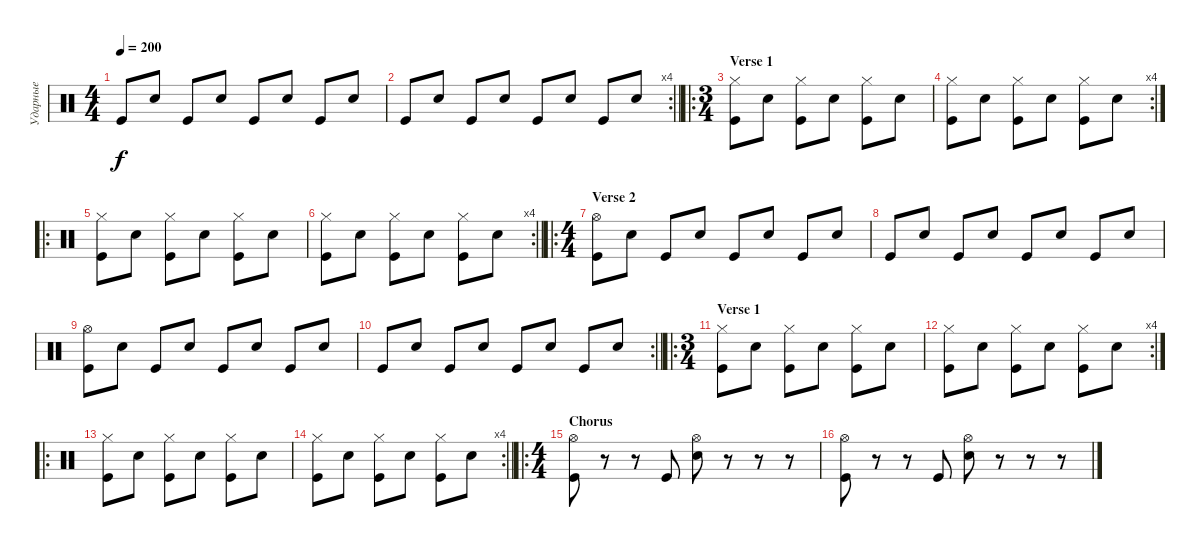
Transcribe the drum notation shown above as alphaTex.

\track ("Ударные" "Ударные") {instrument percussion}
\staff {score}
\articulation defaults
\ts (4 4)
\tempo 200
\clef neutral
\ks c "Kick (hit)".8{dy f} "Snare (hit) 2".8 "Kick (hit)".8 "Snare (hit) 2".8 "Kick (hit)".8 "Snare (hit) 2".8 "Kick (hit)".8 "Snare (hit) 2".8
|
\rc 4
\barLineRight lightlight "Kick (hit)".8 "Snare (hit) 2".8 "Kick (hit)".8 "Snare (hit) 2".8 "Kick (hit)".8 "Snare (hit) 2".8 "Kick (hit)".8 "Snare (hit) 2".8
|
\ro
\ts (3 4)
\section ("" "Verse 1")
("Hi-Hat (closed)" "Kick (hit)").8 "Snare (hit) 2".8 ("Hi-Hat (closed)" "Kick (hit)").8 "Snare (hit) 2".8 ("Hi-Hat (closed)" "Kick (hit)").8 "Snare (hit) 2".8 |
\rc 4
("Hi-Hat (closed)" "Kick (hit)").8 "Snare (hit) 2".8 ("Hi-Hat (closed)" "Kick (hit)").8 "Snare (hit) 2".8 ("Hi-Hat (closed)" "Kick (hit)").8 "Snare (hit) 2".8 |
\ro
("Hi-Hat (closed)" "Kick (hit)").8 "Snare (hit) 2".8 ("Hi-Hat (closed)" "Kick (hit)").8 "Snare (hit) 2".8 ("Hi-Hat (closed)" "Kick (hit)").8 "Snare (hit) 2".8 |
\rc 4
\barLineRight lightlight
("Hi-Hat (closed)" "Kick (hit)").8 "Snare (hit) 2".8 ("Hi-Hat (closed)" "Kick (hit)").8 "Snare (hit) 2".8 ("Hi-Hat (closed)" "Kick (hit)").8 "Snare (hit) 2".8 |
\ro
\ts (4 4)
\section ("" "Verse 2")
("Hi-Hat (open)" "Kick (hit)").8 "Snare (hit) 2".8 "Kick (hit)".8 "Snare (hit) 2".8 "Kick (hit)".8 "Snare (hit) 2".8 "Kick (hit)".8 "Snare (hit) 2".8 |
"Kick (hit)".8 "Snare (hit) 2".8 "Kick (hit)".8 "Snare (hit) 2".8 "Kick (hit)".8 "Snare (hit) 2".8 "Kick (hit)".8 "Snare (hit) 2".8 |
("Hi-Hat (open)" "Kick (hit)").8 "Snare (hit) 2".8 "Kick (hit)".8 "Snare (hit) 2".8 "Kick (hit)".8 "Snare (hit) 2".8 "Kick (hit)".8 "Snare (hit) 2".8 |
\rc 2
\barLineRight lightlight "Kick (hit)".8 "Snare (hit) 2".8 "Kick (hit)".8 "Snare (hit) 2".8 "Kick (hit)".8 "Snare (hit) 2".8 "Kick (hit)".8 "Snare (hit) 2".8
|
\ro
\ts (3 4)
\section ("" "Verse 1")
("Hi-Hat (closed)" "Kick (hit)").8 "Snare (hit) 2".8 ("Hi-Hat (closed)" "Kick (hit)").8 "Snare (hit) 2".8 ("Hi-Hat (closed)" "Kick (hit)").8 "Snare (hit) 2".8 |
\rc 4
("Hi-Hat (closed)" "Kick (hit)").8 "Snare (hit) 2".8 ("Hi-Hat (closed)" "Kick (hit)").8 "Snare (hit) 2".8 ("Hi-Hat (closed)" "Kick (hit)").8 "Snare (hit) 2".8 |
\ro
("Hi-Hat (closed)" "Kick (hit)").8 "Snare (hit) 2".8 ("Hi-Hat (closed)" "Kick (hit)").8 "Snare (hit) 2".8 ("Hi-Hat (closed)" "Kick (hit)").8 "Snare (hit) 2".8 |
\rc 4
\barLineRight lightlight
("Hi-Hat (closed)" "Kick (hit)").8 "Snare (hit) 2".8 ("Hi-Hat (closed)" "Kick (hit)").8 "Snare (hit) 2".8 ("Hi-Hat (closed)" "Kick (hit)").8 "Snare (hit) 2".8 |
\ro
\ts (4 4)
\section ("" "Chorus")
("Hi-Hat (open)" "Kick (hit)").8 r.8 r.8 "Kick (hit)".8 ("Hi-Hat (open)" "Snare (hit) 2").8 r.8 r.8 r.8 |
("Hi-Hat (open)" "Kick (hit)").8 r.8 r.8 "Kick (hit)".8 ("Hi-Hat (open)" "Snare (hit) 2").8 r.8 r.8 r.8
